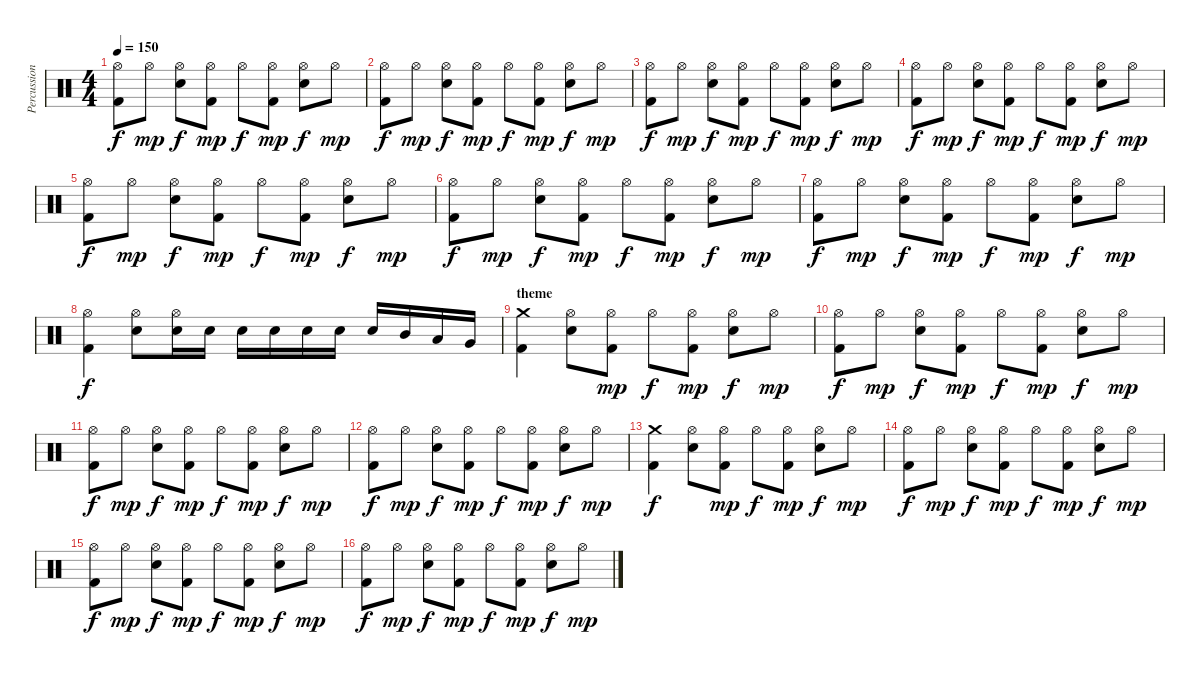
\track ("Percussions" "Percussion") {instrument percussion}
\staff {score}
\articulation defaults
\ts (4 4)
\tempo 150
\clef neutral
\ks c
("Hi-Hat (open)" "Kick (hit) 2").8{dy f} "Hi-Hat (open)".8{dy mp} ("Hi-Hat (open)" "Electric Snare (hit)").8{dy f} ("Hi-Hat (open)" "Kick (hit) 2").8{dy mp} "Hi-Hat (open)".8{dy f} ("Hi-Hat (open)" "Kick (hit) 2").8{dy mp} ("Hi-Hat (open)" "Electric Snare (hit)").8{dy f} "Hi-Hat (open)".8{dy mp} |
("Hi-Hat (open)" "Kick (hit) 2").8{dy f} "Hi-Hat (open)".8{dy mp} ("Hi-Hat (open)" "Electric Snare (hit)").8{dy f} ("Hi-Hat (open)" "Kick (hit) 2").8{dy mp} "Hi-Hat (open)".8{dy f} ("Hi-Hat (open)" "Kick (hit) 2").8{dy mp} ("Hi-Hat (open)" "Electric Snare (hit)").8{dy f} "Hi-Hat (open)".8{dy mp} |
("Hi-Hat (open)" "Kick (hit) 2").8{dy f} "Hi-Hat (open)".8{dy mp} ("Hi-Hat (open)" "Electric Snare (hit)").8{dy f} ("Hi-Hat (open)" "Kick (hit) 2").8{dy mp} "Hi-Hat (open)".8{dy f} ("Hi-Hat (open)" "Kick (hit) 2").8{dy mp} ("Hi-Hat (open)" "Electric Snare (hit)").8{dy f} "Hi-Hat (open)".8{dy mp} |
("Hi-Hat (open)" "Kick (hit) 2").8{dy f} "Hi-Hat (open)".8{dy mp} ("Hi-Hat (open)" "Electric Snare (hit)").8{dy f} ("Hi-Hat (open)" "Kick (hit) 2").8{dy mp} "Hi-Hat (open)".8{dy f} ("Hi-Hat (open)" "Kick (hit) 2").8{dy mp} ("Hi-Hat (open)" "Electric Snare (hit)").8{dy f} "Hi-Hat (open)".8{dy mp} |
("Hi-Hat (open)" "Kick (hit) 2").8{dy f} "Hi-Hat (open)".8{dy mp} ("Hi-Hat (open)" "Electric Snare (hit)").8{dy f} ("Hi-Hat (open)" "Kick (hit) 2").8{dy mp} "Hi-Hat (open)".8{dy f} ("Hi-Hat (open)" "Kick (hit) 2").8{dy mp} ("Hi-Hat (open)" "Electric Snare (hit)").8{dy f} "Hi-Hat (open)".8{dy mp} |
("Hi-Hat (open)" "Kick (hit) 2").8{dy f} "Hi-Hat (open)".8{dy mp} ("Hi-Hat (open)" "Electric Snare (hit)").8{dy f} ("Hi-Hat (open)" "Kick (hit) 2").8{dy mp} "Hi-Hat (open)".8{dy f} ("Hi-Hat (open)" "Kick (hit) 2").8{dy mp} ("Hi-Hat (open)" "Electric Snare (hit)").8{dy f} "Hi-Hat (open)".8{dy mp} |
("Hi-Hat (open)" "Kick (hit) 2").8{dy f} "Hi-Hat (open)".8{dy mp} ("Hi-Hat (open)" "Electric Snare (hit)").8{dy f} ("Hi-Hat (open)" "Kick (hit) 2").8{dy mp} "Hi-Hat (open)".8{dy f} ("Hi-Hat (open)" "Kick (hit) 2").8{dy mp} ("Hi-Hat (open)" "Electric Snare (hit)").8{dy f} "Hi-Hat (open)".8{dy mp} |
("Hi-Hat (open)" "Kick (hit) 2").4{dy f} ("Hi-Hat (open)" "Electric Snare (hit)").8 ("Hi-Hat (open)" "Electric Snare (hit)").16 "Electric Snare (hit)".16 "Electric Snare (hit)".16 "Electric Snare (hit)".16 "Electric Snare (hit)".16 "Electric Snare (hit)".16 "Electric Snare (hit)".16 "Mid Tom (hit)".16 "Low Tom (hit)".16 "Very Low Tom (hit)".16 |
\section ("" "theme")
("Crash medium (hit)" "Kick (hit) 2").4 ("Hi-Hat (open)" "Electric Snare (hit)").8 ("Hi-Hat (open)" "Kick (hit) 2").8{dy mp} "Hi-Hat (open)".8{dy f} ("Hi-Hat (open)" "Kick (hit) 2").8{dy mp} ("Hi-Hat (open)" "Electric Snare (hit)").8{dy f} "Hi-Hat (open)".8{dy mp} |
("Hi-Hat (open)" "Kick (hit) 2").8{dy f} "Hi-Hat (open)".8{dy mp} ("Hi-Hat (open)" "Electric Snare (hit)").8{dy f} ("Hi-Hat (open)" "Kick (hit) 2").8{dy mp} "Hi-Hat (open)".8{dy f} ("Hi-Hat (open)" "Kick (hit) 2").8{dy mp} ("Hi-Hat (open)" "Electric Snare (hit)").8{dy f} "Hi-Hat (open)".8{dy mp} |
("Hi-Hat (open)" "Kick (hit) 2").8{dy f} "Hi-Hat (open)".8{dy mp} ("Hi-Hat (open)" "Electric Snare (hit)").8{dy f} ("Hi-Hat (open)" "Kick (hit) 2").8{dy mp} "Hi-Hat (open)".8{dy f} ("Hi-Hat (open)" "Kick (hit) 2").8{dy mp} ("Hi-Hat (open)" "Electric Snare (hit)").8{dy f} "Hi-Hat (open)".8{dy mp} |
("Hi-Hat (open)" "Kick (hit) 2").8{dy f} "Hi-Hat (open)".8{dy mp} ("Hi-Hat (open)" "Electric Snare (hit)").8{dy f} ("Hi-Hat (open)" "Kick (hit) 2").8{dy mp} "Hi-Hat (open)".8{dy f} ("Hi-Hat (open)" "Kick (hit) 2").8{dy mp} ("Hi-Hat (open)" "Electric Snare (hit)").8{dy f} "Hi-Hat (open)".8{dy mp} |
("Crash medium (hit)" "Kick (hit) 2").4{dy f} ("Hi-Hat (open)" "Electric Snare (hit)").8 ("Hi-Hat (open)" "Kick (hit) 2").8{dy mp} "Hi-Hat (open)".8{dy f} ("Hi-Hat (open)" "Kick (hit) 2").8{dy mp} ("Hi-Hat (open)" "Electric Snare (hit)").8{dy f} "Hi-Hat (open)".8{dy mp} |
("Hi-Hat (open)" "Kick (hit) 2").8{dy f} "Hi-Hat (open)".8{dy mp} ("Hi-Hat (open)" "Electric Snare (hit)").8{dy f} ("Hi-Hat (open)" "Kick (hit) 2").8{dy mp} "Hi-Hat (open)".8{dy f} ("Hi-Hat (open)" "Kick (hit) 2").8{dy mp} ("Hi-Hat (open)" "Electric Snare (hit)").8{dy f} "Hi-Hat (open)".8{dy mp} |
("Hi-Hat (open)" "Kick (hit) 2").8{dy f} "Hi-Hat (open)".8{dy mp} ("Hi-Hat (open)" "Electric Snare (hit)").8{dy f} ("Hi-Hat (open)" "Kick (hit) 2").8{dy mp} "Hi-Hat (open)".8{dy f} ("Hi-Hat (open)" "Kick (hit) 2").8{dy mp} ("Hi-Hat (open)" "Electric Snare (hit)").8{dy f} "Hi-Hat (open)".8{dy mp} |
("Hi-Hat (open)" "Kick (hit) 2").8{dy f} "Hi-Hat (open)".8{dy mp} ("Hi-Hat (open)" "Electric Snare (hit)").8{dy f} ("Hi-Hat (open)" "Kick (hit) 2").8{dy mp} "Hi-Hat (open)".8{dy f} ("Hi-Hat (open)" "Kick (hit) 2").8{dy mp} ("Hi-Hat (open)" "Electric Snare (hit)").8{dy f} "Hi-Hat (open)".8{dy mp}
